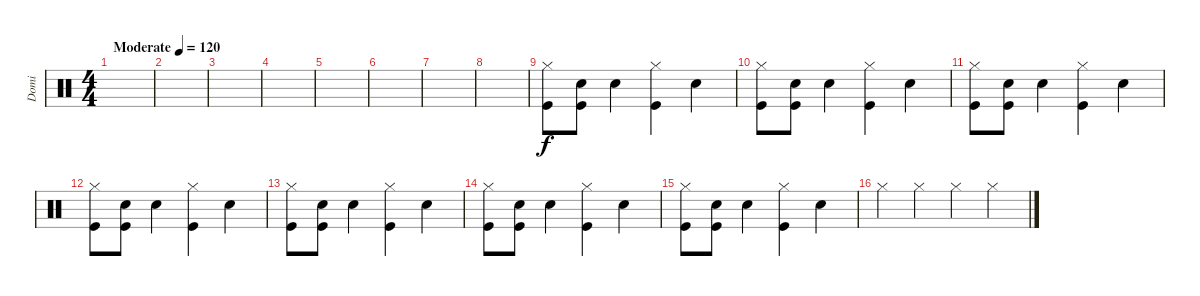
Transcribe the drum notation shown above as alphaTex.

\track ("Domi" "Domi") {instrument percussion}
\staff {score}
\articulation defaults
\ts (4 4)
\tempo (120 "Moderate")
\clef neutral
\ks c
|
|
|
|
|
|
|
|
("Hi-Hat (closed)" "Kick (hit)").8 ("Snare (hit) 2" "Kick (hit)").8 "Snare (hit) 2".4 ("Hi-Hat (closed)" "Kick (hit)").4 "Snare (hit) 2".4 |
("Hi-Hat (closed)" "Kick (hit)").8 ("Snare (hit) 2" "Kick (hit)").8 "Snare (hit) 2".4 ("Hi-Hat (closed)" "Kick (hit)").4 "Snare (hit) 2".4 |
("Hi-Hat (closed)" "Kick (hit)").8 ("Snare (hit) 2" "Kick (hit)").8 "Snare (hit) 2".4 ("Hi-Hat (closed)" "Kick (hit)").4 "Snare (hit) 2".4 |
("Hi-Hat (closed)" "Kick (hit)").8 ("Snare (hit) 2" "Kick (hit)").8 "Snare (hit) 2".4 ("Hi-Hat (closed)" "Kick (hit)").4 "Snare (hit) 2".4 |
("Hi-Hat (closed)" "Kick (hit)").8 ("Snare (hit) 2" "Kick (hit)").8 "Snare (hit) 2".4 ("Hi-Hat (closed)" "Kick (hit)").4 "Snare (hit) 2".4 |
("Hi-Hat (closed)" "Kick (hit)").8 ("Snare (hit) 2" "Kick (hit)").8 "Snare (hit) 2".4 ("Hi-Hat (closed)" "Kick (hit)").4 "Snare (hit) 2".4 |
("Hi-Hat (closed)" "Kick (hit)").8 ("Snare (hit) 2" "Kick (hit)").8 "Snare (hit) 2".4 ("Hi-Hat (closed)" "Kick (hit)").4 "Snare (hit) 2".4 |
"Hi-Hat (closed)".4 "Hi-Hat (closed)".4 "Hi-Hat (closed)".4 "Hi-Hat (closed)".4
